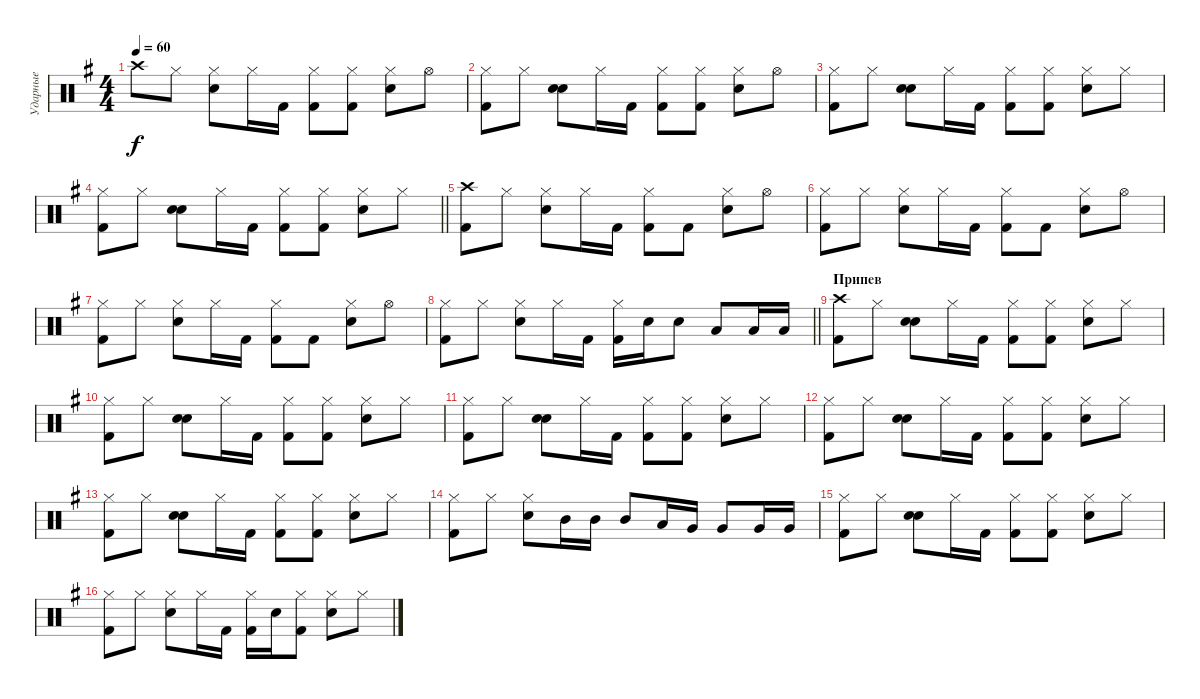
\track ("Ударные" "Ударные") {instrument percussion}
\staff {score}
\articulation defaults
\ts (4 4)
\tempo 60
\clef neutral
\ks g "Crash high (hit)".8{dy f} "Hi-Hat (closed)".8
("Hi-Hat (closed)" "Snare (hit) 2").8 "Hi-Hat (closed)".16 "Kick (hit) 2".16 ("Hi-Hat (closed)" "Kick (hit) 2").8 ("Hi-Hat (closed)" "Kick (hit) 2").8 ("Hi-Hat (closed)" "Snare (hit) 2").8 "Hi-Hat (open)".8 |
("Hi-Hat (closed)" "Kick (hit) 2").8 "Hi-Hat (closed)".8 ("Snare (hit)" "Snare (hit) 2").8 "Hi-Hat (closed)".16 "Kick (hit) 2".16 ("Hi-Hat (closed)" "Kick (hit) 2").8 ("Hi-Hat (closed)" "Kick (hit) 2").8 ("Hi-Hat (closed)" "Snare (hit) 2").8 "Hi-Hat (open)".8 |
("Hi-Hat (closed)" "Kick (hit) 2").8 "Hi-Hat (closed)".8 ("Snare (hit)" "Snare (hit) 2").8 "Hi-Hat (closed)".16 "Kick (hit) 2".16 ("Hi-Hat (closed)" "Kick (hit) 2").8 ("Hi-Hat (closed)" "Kick (hit) 2").8 ("Hi-Hat (closed)" "Snare (hit) 2").8 "Hi-Hat (closed)".8 |
\barLineRight lightlight
("Hi-Hat (closed)" "Kick (hit) 2").8 "Hi-Hat (closed)".8 ("Snare (hit)" "Snare (hit) 2").8 "Hi-Hat (closed)".16 "Kick (hit) 2".16 ("Hi-Hat (closed)" "Kick (hit) 2").8 ("Hi-Hat (closed)" "Kick (hit) 2").8 ("Hi-Hat (closed)" "Snare (hit) 2").8 "Hi-Hat (closed)".8 |
("Kick (hit) 2" "Crash high (hit)").8 "Hi-Hat (closed)".8 ("Hi-Hat (closed)" "Snare (hit) 2").8 "Hi-Hat (closed)".16 "Kick (hit) 2".16 ("Hi-Hat (closed)" "Kick (hit) 2").8 "Kick (hit) 2".8 ("Hi-Hat (closed)" "Snare (hit) 2").8 "Hi-Hat (open)".8 |
("Hi-Hat (closed)" "Kick (hit) 2").8 "Hi-Hat (closed)".8 ("Hi-Hat (closed)" "Snare (hit) 2").8 "Hi-Hat (closed)".16 "Kick (hit) 2".16 ("Hi-Hat (closed)" "Kick (hit) 2").8 "Kick (hit) 2".8 ("Hi-Hat (closed)" "Snare (hit) 2").8 "Hi-Hat (open)".8 |
("Hi-Hat (closed)" "Kick (hit) 2").8 "Hi-Hat (closed)".8 ("Hi-Hat (closed)" "Snare (hit) 2").8 "Hi-Hat (closed)".16 "Kick (hit) 2".16 ("Hi-Hat (closed)" "Kick (hit) 2").8 "Kick (hit) 2".8 ("Hi-Hat (closed)" "Snare (hit) 2").8 "Hi-Hat (open)".8 |
\barLineRight lightlight
("Hi-Hat (closed)" "Kick (hit) 2").8 "Hi-Hat (closed)".8 ("Hi-Hat (closed)" "Snare (hit) 2").8 "Hi-Hat (closed)".16 "Kick (hit) 2".16 ("Hi-Hat (closed)" "Kick (hit) 2").16 "Snare (hit) 2".16 "Snare (hit) 2".8 "Low Tom (hit)".8 "Low Tom (hit)".16 "Low Tom (hit)".16 |
\section ("" "Припев")
("Kick (hit) 2" "Crash high (hit)").8 "Hi-Hat (closed)".8 ("Snare (hit)" "Snare (hit) 2").8 "Hi-Hat (closed)".16 "Kick (hit) 2".16 ("Hi-Hat (closed)" "Kick (hit) 2").8 ("Hi-Hat (closed)" "Kick (hit) 2").8 ("Hi-Hat (closed)" "Snare (hit) 2").8 "Hi-Hat (closed)".8 |
("Hi-Hat (closed)" "Kick (hit) 2").8 "Hi-Hat (closed)".8 ("Snare (hit)" "Snare (hit) 2").8 "Hi-Hat (closed)".16 "Kick (hit) 2".16 ("Hi-Hat (closed)" "Kick (hit) 2").8 ("Hi-Hat (closed)" "Kick (hit) 2").8 ("Hi-Hat (closed)" "Snare (hit) 2").8 "Hi-Hat (closed)".8 |
("Hi-Hat (closed)" "Kick (hit) 2").8 "Hi-Hat (closed)".8 ("Snare (hit)" "Snare (hit) 2").8 "Hi-Hat (closed)".16 "Kick (hit) 2".16 ("Hi-Hat (closed)" "Kick (hit) 2").8 ("Hi-Hat (closed)" "Kick (hit) 2").8 ("Hi-Hat (closed)" "Snare (hit) 2").8 "Hi-Hat (closed)".8 |
("Hi-Hat (closed)" "Kick (hit) 2").8 "Hi-Hat (closed)".8 ("Snare (hit)" "Snare (hit) 2").8 "Hi-Hat (closed)".16 "Kick (hit) 2".16 ("Hi-Hat (closed)" "Kick (hit) 2").8 ("Hi-Hat (closed)" "Kick (hit) 2").8 ("Hi-Hat (closed)" "Snare (hit) 2").8 "Hi-Hat (closed)".8 |
("Hi-Hat (closed)" "Kick (hit) 2").8 "Hi-Hat (closed)".8 ("Snare (hit)" "Snare (hit) 2").8 "Hi-Hat (closed)".16 "Kick (hit) 2".16 ("Hi-Hat (closed)" "Kick (hit) 2").8 ("Hi-Hat (closed)" "Kick (hit) 2").8 ("Hi-Hat (closed)" "Snare (hit) 2").8 "Hi-Hat (closed)".8 |
("Hi-Hat (closed)" "Kick (hit) 2").8 "Hi-Hat (closed)".8 ("Hi-Hat (closed)" "Snare (hit) 2").8 "Mid Tom (hit)".16 "Mid Tom (hit)".16 "Mid Tom (hit)".8 "Low Tom (hit)".16 "Very Low Tom (hit)".16 "Very Low Tom (hit)".8 "Very Low Tom (hit)".16 "Very Low Tom (hit)".16 |
("Hi-Hat (closed)" "Kick (hit) 2").8 "Hi-Hat (closed)".8 ("Snare (hit)" "Snare (hit) 2").8 "Hi-Hat (closed)".16 "Kick (hit) 2".16 ("Hi-Hat (closed)" "Kick (hit) 2").8 ("Hi-Hat (closed)" "Kick (hit) 2").8 ("Hi-Hat (closed)" "Snare (hit) 2").8 "Hi-Hat (closed)".8 |
("Hi-Hat (closed)" "Kick (hit) 2").8 "Hi-Hat (closed)".8 ("Hi-Hat (closed)" "Snare (hit) 2").8 "Hi-Hat (closed)".16 "Kick (hit) 2".16 ("Hi-Hat (closed)" "Kick (hit) 2").16 "Snare (hit) 2".16 ("Hi-Hat (closed)" "Kick (hit) 2").8 ("Hi-Hat (closed)" "Snare (hit) 2").8 "Hi-Hat (closed)".8
